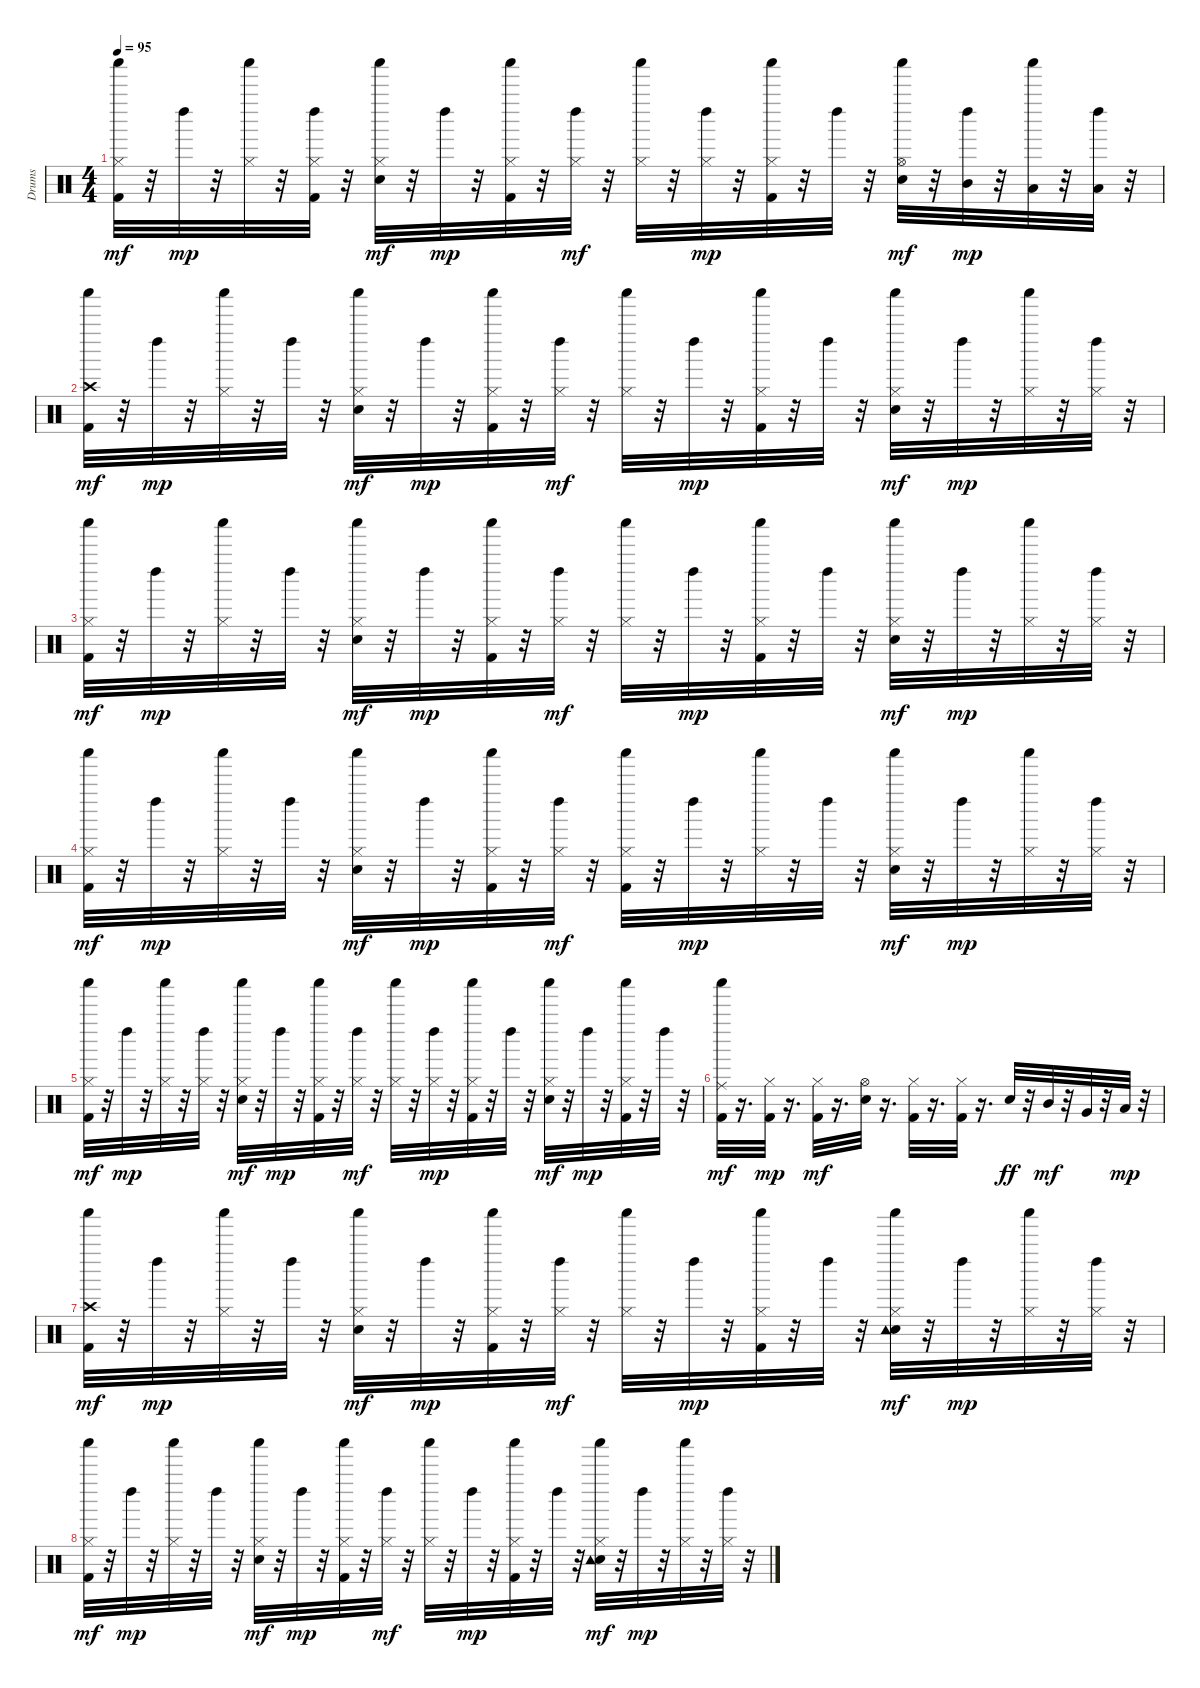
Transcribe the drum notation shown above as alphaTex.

\track ("Drums" "Drums") {instrument percussion}
\staff {score}
\articulation defaults
\ts (4 4)
\tempo 95
\clef neutral
\ks c
("Kick (hit) 2" "Hi-Hat (closed)" "Shaker (hit)").32{dy mf} r.32 "Left Maraca (hit)".32{dy mp} r.32 ("Hi-Hat (closed)" "Shaker (hit)").32 r.32 ("Kick (hit) 2" "Hi-Hat (closed)" "Left Maraca (hit)").32 r.32 ("Electric Snare (hit)" "Hi-Hat (closed)" "Shaker (hit)").32{dy mf} r.32 "Left Maraca (hit)".32{dy mp} r.32 ("Kick (hit) 2" "Hi-Hat (closed)" "Shaker (hit)").32 r.32 ("Hi-Hat (closed)" "Left Maraca (hit)").32{dy mf} r.32 ("Hi-Hat (closed)" "Shaker (hit)").32 r.32 ("Hi-Hat (closed)" "Left Maraca (hit)").32{dy mp} r.32 ("Kick (hit) 2" "Hi-Hat (closed)" "Shaker (hit)").32 r.32 "Left Maraca (hit)".32 r.32 ("Electric Snare (hit)" "Hi-Hat (open)" "Shaker (hit)").32{dy mf} r.32 ("Mid Tom (hit)" "Left Maraca (hit)").32{dy mp} r.32 ("Low Tom (hit)" "Shaker (hit)").32 r.32 ("Low Floor Tom (hit)" "Left Maraca (hit)").32 r.32 |
("Kick (hit) 2" "Crash high (hit)" "Shaker (hit)").32{dy mf} r.32 "Left Maraca (hit)".32{dy mp} r.32 ("Hi-Hat (closed)" "Shaker (hit)").32 r.32 "Left Maraca (hit)".32 r.32 ("Electric Snare (hit)" "Hi-Hat (closed)" "Shaker (hit)").32{dy mf} r.32 "Left Maraca (hit)".32{dy mp} r.32 ("Kick (hit) 2" "Hi-Hat (closed)" "Shaker (hit)").32 r.32 ("Hi-Hat (closed)" "Left Maraca (hit)").32{dy mf} r.32 ("Hi-Hat (closed)" "Shaker (hit)").32 r.32 "Left Maraca (hit)".32{dy mp} r.32 ("Kick (hit) 2" "Hi-Hat (closed)" "Shaker (hit)").32 r.32 "Left Maraca (hit)".32 r.32 ("Electric Snare (hit)" "Hi-Hat (closed)" "Shaker (hit)").32{dy mf} r.32 "Left Maraca (hit)".32{dy mp} r.32 ("Hi-Hat (closed)" "Shaker (hit)").32 r.32 ("Hi-Hat (closed)" "Left Maraca (hit)").32 r.32 |
("Kick (hit) 2" "Hi-Hat (closed)" "Shaker (hit)").32{dy mf} r.32 "Left Maraca (hit)".32{dy mp} r.32 ("Hi-Hat (closed)" "Shaker (hit)").32 r.32 "Left Maraca (hit)".32 r.32 ("Electric Snare (hit)" "Hi-Hat (closed)" "Shaker (hit)").32{dy mf} r.32 "Left Maraca (hit)".32{dy mp} r.32 ("Kick (hit) 2" "Hi-Hat (closed)" "Shaker (hit)").32 r.32 ("Hi-Hat (closed)" "Left Maraca (hit)").32{dy mf} r.32 ("Hi-Hat (closed)" "Shaker (hit)").32 r.32 "Left Maraca (hit)".32{dy mp} r.32 ("Kick (hit) 2" "Hi-Hat (closed)" "Shaker (hit)").32 r.32 "Left Maraca (hit)".32 r.32 ("Electric Snare (hit)" "Hi-Hat (closed)" "Shaker (hit)").32{dy mf} r.32 "Left Maraca (hit)".32{dy mp} r.32 ("Hi-Hat (closed)" "Shaker (hit)").32 r.32 ("Hi-Hat (closed)" "Left Maraca (hit)").32 r.32 |
("Kick (hit) 2" "Hi-Hat (closed)" "Shaker (hit)").32{dy mf} r.32 "Left Maraca (hit)".32{dy mp} r.32 ("Hi-Hat (closed)" "Shaker (hit)").32 r.32 "Left Maraca (hit)".32 r.32 ("Electric Snare (hit)" "Hi-Hat (closed)" "Shaker (hit)").32{dy mf} r.32 "Left Maraca (hit)".32{dy mp} r.32 ("Kick (hit) 2" "Hi-Hat (closed)" "Shaker (hit)").32 r.32 ("Hi-Hat (closed)" "Left Maraca (hit)").32{dy mf} r.32 ("Kick (hit) 2" "Hi-Hat (closed)" "Shaker (hit)").32 r.32 "Left Maraca (hit)".32{dy mp} r.32 ("Hi-Hat (closed)" "Shaker (hit)").32 r.32 "Left Maraca (hit)".32 r.32 ("Electric Snare (hit)" "Hi-Hat (closed)" "Shaker (hit)").32{dy mf} r.32 "Left Maraca (hit)".32{dy mp} r.32 ("Hi-Hat (closed)" "Shaker (hit)").32 r.32 ("Hi-Hat (closed)" "Left Maraca (hit)").32 r.32 |
("Kick (hit) 2" "Hi-Hat (closed)" "Shaker (hit)").32{dy mf} r.32 "Left Maraca (hit)".32{dy mp} r.32 ("Hi-Hat (closed)" "Shaker (hit)").32 r.32 ("Hi-Hat (closed)" "Left Maraca (hit)").32 r.32 ("Electric Snare (hit)" "Hi-Hat (closed)" "Shaker (hit)").32{dy mf} r.32 "Left Maraca (hit)".32{dy mp} r.32 ("Kick (hit) 2" "Hi-Hat (closed)" "Shaker (hit)").32 r.32 ("Hi-Hat (closed)" "Left Maraca (hit)").32{dy mf} r.32 ("Hi-Hat (closed)" "Shaker (hit)").32 r.32 ("Hi-Hat (closed)" "Left Maraca (hit)").32{dy mp} r.32 ("Kick (hit) 2" "Hi-Hat (closed)" "Shaker (hit)").32 r.32 "Left Maraca (hit)".32 r.32 ("Electric Snare (hit)" "Hi-Hat (closed)" "Shaker (hit)").32{dy mf} r.32 "Left Maraca (hit)".32{dy mp} r.32 ("Kick (hit) 2" "Hi-Hat (closed)" "Shaker (hit)").32 r.32 "Left Maraca (hit)".32 r.32 |
("Kick (hit) 2" "Ride (middle)" "Shaker (hit)").32{dy mf} r.16{d} ("Kick (hit) 2" "Hi-Hat (closed)").32{dy mp} r.16{d} ("Kick (hit) 2" "Hi-Hat (closed)").32{dy mf} r.16{d} ("Electric Snare (hit)" "Hi-Hat (open)").32 r.16{d} ("Kick (hit) 2" "Hi-Hat (closed)").32 r.16{d} ("Kick (hit) 2" "Hi-Hat (closed)").32 r.16{d} "Electric Snare (hit)".32{dy ff} r.32 "Mid Tom (hit)".32{dy mf} r.32 "Very Low Tom (hit)".32 r.32 "Low Floor Tom (hit)".32{dy mp} r.32 |
("Kick (hit) 2" "Crash high (hit)" "Shaker (hit)").32{dy mf} r.32 "Left Maraca (hit)".32{dy mp} r.32 ("Hi-Hat (closed)" "Shaker (hit)").32 r.32 "Left Maraca (hit)".32 r.32 ("Electric Snare (hit)" "Hi-Hat (closed)" "Shaker (hit)").32{dy mf} r.32 "Left Maraca (hit)".32{dy mp} r.32 ("Kick (hit) 2" "Hi-Hat (closed)" "Shaker (hit)").32 r.32 ("Hi-Hat (closed)" "Left Maraca (hit)").32{dy mf} r.32 ("Hi-Hat (closed)" "Shaker (hit)").32 r.32 "Left Maraca (hit)".32{dy mp} r.32 ("Kick (hit) 2" "Hi-Hat (closed)" "Shaker (hit)").32 r.32 "Left Maraca (hit)".32 r.32 ("Electric Snare (hit)" "Hi-Hat (closed)" "Tambourine (hit)" "Shaker (hit)").32{dy mf} r.32 "Left Maraca (hit)".32{dy mp} r.32 ("Hi-Hat (closed)" "Shaker (hit)").32 r.32 ("Hi-Hat (closed)" "Left Maraca (hit)").32 r.32 |
("Kick (hit) 2" "Hi-Hat (closed)" "Shaker (hit)").32{dy mf} r.32 "Left Maraca (hit)".32{dy mp} r.32 ("Hi-Hat (closed)" "Shaker (hit)").32 r.32 "Left Maraca (hit)".32 r.32 ("Electric Snare (hit)" "Hi-Hat (closed)" "Shaker (hit)").32{dy mf} r.32 "Left Maraca (hit)".32{dy mp} r.32 ("Kick (hit) 2" "Hi-Hat (closed)" "Shaker (hit)").32 r.32 ("Hi-Hat (closed)" "Left Maraca (hit)").32{dy mf} r.32 ("Hi-Hat (closed)" "Shaker (hit)").32 r.32 "Left Maraca (hit)".32{dy mp} r.32 ("Kick (hit) 2" "Hi-Hat (closed)" "Shaker (hit)").32 r.32 "Left Maraca (hit)".32 r.32 ("Electric Snare (hit)" "Hi-Hat (closed)" "Tambourine (hit)" "Shaker (hit)").32{dy mf} r.32 "Left Maraca (hit)".32{dy mp} r.32 ("Hi-Hat (closed)" "Shaker (hit)").32 r.32 ("Hi-Hat (closed)" "Left Maraca (hit)").32 r.32
